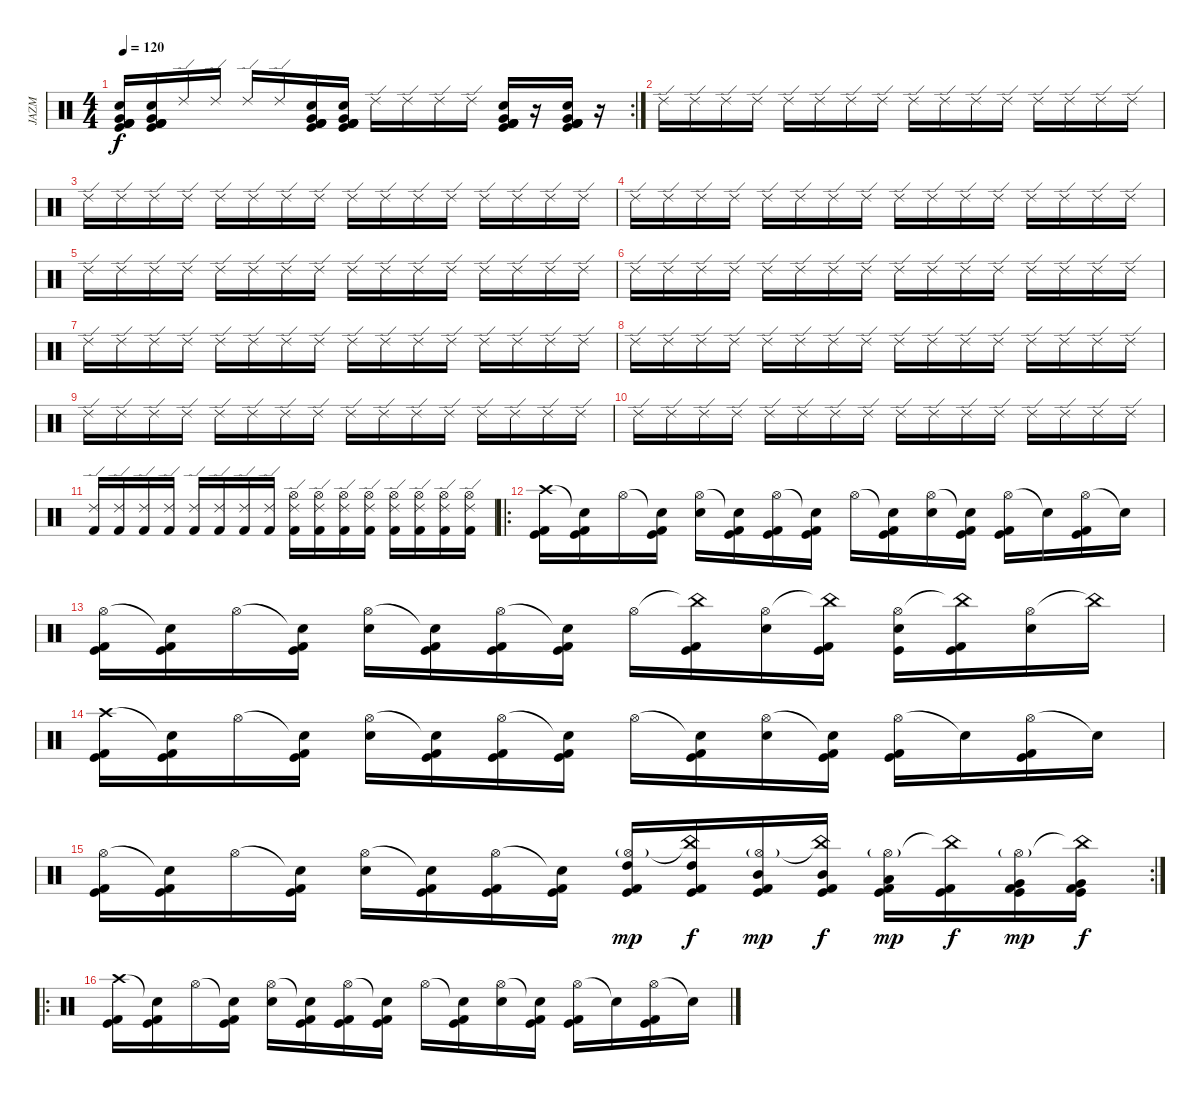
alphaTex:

\track ("JAZM" "JAZM") {instrument percussion}
\staff {score}
\articulation defaults
\rc 2
\ts (4 4)
\tempo 120
\clef neutral
\ks c
("Kick (hit) 2" "Electric Snare (hit)" "Kick (hit)" "Kick (hit) 2" "Very Low Tom (hit)" "Kick (hit) 2").16{dy f} ("Kick (hit) 2" "Electric Snare (hit)" "Kick (hit)" "Kick (hit) 2" "Very Low Tom (hit)" "Kick (hit) 2").16 "Ride (edge) 2".16 "Ride (edge) 2".16 "Ride (edge) 2".16 "Ride (edge) 2".16 ("Kick (hit) 2" "Electric Snare (hit)" "Kick (hit)" "Kick (hit) 2" "Very Low Tom (hit)" "Kick (hit) 2").16 ("Kick (hit) 2" "Electric Snare (hit)" "Kick (hit)" "Kick (hit) 2" "Very Low Tom (hit)" "Kick (hit) 2").16 "Ride (edge) 2".16 "Ride (edge) 2".16 "Ride (edge) 2".16 "Ride (edge) 2".16 ("Kick (hit) 2" "Electric Snare (hit)" "Kick (hit)" "Kick (hit) 2" "Very Low Tom (hit)" "Kick (hit) 2").16 r.16 ("Kick (hit) 2" "Electric Snare (hit)" "Kick (hit)" "Kick (hit) 2" "Very Low Tom (hit)" "Kick (hit) 2").16 r.16 |
"Ride (edge) 2".16 "Ride (edge) 2".16 "Ride (edge) 2".16 "Ride (edge) 2".16 "Ride (edge) 2".16 "Ride (edge) 2".16 "Ride (edge) 2".16 "Ride (edge) 2".16 "Ride (edge) 2".16 "Ride (edge) 2".16 "Ride (edge) 2".16 "Ride (edge) 2".16 "Ride (edge) 2".16 "Ride (edge) 2".16 "Ride (edge) 2".16 "Ride (edge) 2".16 |
"Ride (edge) 2".16 "Ride (edge) 2".16 "Ride (edge) 2".16 "Ride (edge) 2".16 "Ride (edge) 2".16 "Ride (edge) 2".16 "Ride (edge) 2".16 "Ride (edge) 2".16 "Ride (edge) 2".16 "Ride (edge) 2".16 "Ride (edge) 2".16 "Ride (edge) 2".16 "Ride (edge) 2".16 "Ride (edge) 2".16 "Ride (edge) 2".16 "Ride (edge) 2".16 |
"Ride (edge) 2".16 "Ride (edge) 2".16 "Ride (edge) 2".16 "Ride (edge) 2".16 "Ride (edge) 2".16 "Ride (edge) 2".16 "Ride (edge) 2".16 "Ride (edge) 2".16 "Ride (edge) 2".16 "Ride (edge) 2".16 "Ride (edge) 2".16 "Ride (edge) 2".16 "Ride (edge) 2".16 "Ride (edge) 2".16 "Ride (edge) 2".16 "Ride (edge) 2".16 |
"Ride (edge) 2".16 "Ride (edge) 2".16 "Ride (edge) 2".16 "Ride (edge) 2".16 "Ride (edge) 2".16 "Ride (edge) 2".16 "Ride (edge) 2".16 "Ride (edge) 2".16 "Ride (edge) 2".16 "Ride (edge) 2".16 "Ride (edge) 2".16 "Ride (edge) 2".16 "Ride (edge) 2".16 "Ride (edge) 2".16 "Ride (edge) 2".16 "Ride (edge) 2".16 |
"Ride (edge) 2".16 "Ride (edge) 2".16 "Ride (edge) 2".16 "Ride (edge) 2".16 "Ride (edge) 2".16 "Ride (edge) 2".16 "Ride (edge) 2".16 "Ride (edge) 2".16 "Ride (edge) 2".16 "Ride (edge) 2".16 "Ride (edge) 2".16 "Ride (edge) 2".16 "Ride (edge) 2".16 "Ride (edge) 2".16 "Ride (edge) 2".16 "Ride (edge) 2".16 |
"Ride (edge) 2".16 "Ride (edge) 2".16 "Ride (edge) 2".16 "Ride (edge) 2".16 "Ride (edge) 2".16 "Ride (edge) 2".16 "Ride (edge) 2".16 "Ride (edge) 2".16 "Ride (edge) 2".16 "Ride (edge) 2".16 "Ride (edge) 2".16 "Ride (edge) 2".16 "Ride (edge) 2".16 "Ride (edge) 2".16 "Ride (edge) 2".16 "Ride (edge) 2".16 |
"Ride (edge) 2".16 "Ride (edge) 2".16 "Ride (edge) 2".16 "Ride (edge) 2".16 "Ride (edge) 2".16 "Ride (edge) 2".16 "Ride (edge) 2".16 "Ride (edge) 2".16 "Ride (edge) 2".16 "Ride (edge) 2".16 "Ride (edge) 2".16 "Ride (edge) 2".16 "Ride (edge) 2".16 "Ride (edge) 2".16 "Ride (edge) 2".16 "Ride (edge) 2".16 |
"Ride (edge) 2".16 "Ride (edge) 2".16 "Ride (edge) 2".16 "Ride (edge) 2".16 "Ride (edge) 2".16 "Ride (edge) 2".16 "Ride (edge) 2".16 "Ride (edge) 2".16 "Ride (edge) 2".16 "Ride (edge) 2".16 "Ride (edge) 2".16 "Ride (edge) 2".16 "Ride (edge) 2".16 "Ride (edge) 2".16 "Ride (edge) 2".16 "Ride (edge) 2".16 |
"Ride (edge) 2".16 "Ride (edge) 2".16 "Ride (edge) 2".16 "Ride (edge) 2".16 "Ride (edge) 2".16 "Ride (edge) 2".16 "Ride (edge) 2".16 "Ride (edge) 2".16 "Ride (edge) 2".16 "Ride (edge) 2".16 "Ride (edge) 2".16 "Ride (edge) 2".16 "Ride (edge) 2".16 "Ride (edge) 2".16 "Ride (edge) 2".16 "Ride (edge) 2".16 |
("Kick (hit) 2" "Ride (edge) 2").16 ("Kick (hit) 2" "Ride (edge) 2").16 ("Kick (hit) 2" "Ride (edge) 2").16 ("Kick (hit) 2" "Ride (edge) 2").16 ("Kick (hit) 2" "Ride (edge) 2").16 ("Kick (hit) 2" "Ride (edge) 2").16 ("Kick (hit) 2" "Ride (edge) 2").16 ("Kick (hit) 2" "Ride (edge) 2").16 ("Hi-Hat (open)" "Kick (hit) 2" "Ride (edge) 2").16 ("Hi-Hat (open)" "Kick (hit) 2" "Ride (edge) 2").16 ("Hi-Hat (open)" "Kick (hit) 2" "Ride (edge) 2").16 ("Hi-Hat (open)" "Kick (hit) 2" "Ride (edge) 2").16 ("Hi-Hat (open)" "Kick (hit) 2" "Ride (edge) 2").16 ("Hi-Hat (open)" "Kick (hit) 2" "Ride (edge) 2").16 ("Hi-Hat (open)" "Kick (hit) 2" "Ride (edge) 2").16 ("Hi-Hat (open)" "Kick (hit) 2" "Ride (edge) 2").16 |
\ro
("Crash high (hit)" "Kick (hit) 2" "Kick (hit)").16 ("Snare (hit)"{t} "Kick (hit) 2" "Kick (hit)").16 "Hi-Hat (open)".16 ("Snare (hit)"{t} "Kick (hit) 2" "Kick (hit)").16 ("Hi-Hat (open)" "Electric Snare (hit)").16 ("Snare (hit)"{t} "Kick (hit) 2" "Kick (hit)").16 ("Hi-Hat (open)" "Kick (hit) 2" "Kick (hit)").16 ("Snare (hit)"{t} "Kick (hit) 2" "Kick (hit)").16 "Hi-Hat (open)".16 ("Snare (hit)"{t} "Kick (hit) 2" "Kick (hit)").16 ("Hi-Hat (open)" "Electric Snare (hit)").16 ("Snare (hit)"{t} "Kick (hit) 2" "Kick (hit)").16 ("Hi-Hat (open)" "Kick (hit) 2" "Kick (hit)").16 "Snare (hit)"{t}.16 ("Hi-Hat (open)" "Kick (hit) 2" "Kick (hit)").16 "Snare (hit)"{t}.16 |
("Hi-Hat (open)" "Kick (hit) 2" "Kick (hit)").16 ("Snare (hit)"{t} "Kick (hit) 2" "Kick (hit)").16 "Hi-Hat (open)".16 ("Snare (hit)"{t} "Kick (hit) 2" "Kick (hit)").16 ("Hi-Hat (open)" "Electric Snare (hit)").16 ("Snare (hit)"{t} "Kick (hit) 2" "Kick (hit)").16 ("Hi-Hat (open)" "Kick (hit) 2" "Kick (hit)").16 ("Snare (hit)"{t} "Kick (hit) 2" "Kick (hit)").16 "Hi-Hat (open)".16 ("China (hit)"{t} "Kick (hit) 2" "Kick (hit)").16 ("Hi-Hat (open)" "Electric Snare (hit)").16 ("China (hit)"{t} "Kick (hit) 2" "Kick (hit)").16 ("Hi-Hat (open)" "Electric Snare (hit)" "Kick (hit)").16 ("China (hit)"{t} "Kick (hit) 2" "Kick (hit)").16 ("Hi-Hat (open)" "Electric Snare (hit)").16 "China (hit)"{t}.16 |
("Crash high (hit)" "Kick (hit) 2" "Kick (hit)").16 ("Snare (hit)"{t} "Kick (hit) 2" "Kick (hit)").16 "Hi-Hat (open)".16 ("Snare (hit)"{t} "Kick (hit) 2" "Kick (hit)").16 ("Hi-Hat (open)" "Electric Snare (hit)").16 ("Snare (hit)"{t} "Kick (hit) 2" "Kick (hit)").16 ("Hi-Hat (open)" "Kick (hit) 2" "Kick (hit)").16 ("Snare (hit)"{t} "Kick (hit) 2" "Kick (hit)").16 "Hi-Hat (open)".16 ("Snare (hit)"{t} "Kick (hit) 2" "Kick (hit)").16 ("Hi-Hat (open)" "Electric Snare (hit)").16 ("Snare (hit)"{t} "Kick (hit) 2" "Kick (hit)").16 ("Hi-Hat (open)" "Kick (hit) 2" "Kick (hit)").16 "Snare (hit)"{t}.16 ("Hi-Hat (open)" "Kick (hit) 2" "Kick (hit)").16 "Snare (hit)"{t}.16 |
\rc 2
("Hi-Hat (open)" "Kick (hit) 2" "Kick (hit)").16 ("Snare (hit)"{t} "Kick (hit) 2" "Kick (hit)").16 "Hi-Hat (open)".16 ("Snare (hit)"{t} "Kick (hit) 2" "Kick (hit)").16 ("Hi-Hat (open)" "Electric Snare (hit)").16 ("Snare (hit)"{t} "Kick (hit) 2" "Kick (hit)").16 ("Hi-Hat (open)" "Kick (hit) 2" "Kick (hit)").16 ("Snare (hit)"{t} "Kick (hit) 2" "Kick (hit)").16 ("Hi-Hat (open)"{g} "High Tom (hit)" "Kick (hit) 2" "Kick (hit)").16{dy mp} ("China (hit)"{t} "High Tom (hit)" "Kick (hit) 2" "Kick (hit)").16{dy f} ("Hi-Hat (open)"{g} "Mid Tom (hit)" "Kick (hit) 2" "Kick (hit)").16{dy mp} ("China (hit)"{t} "Mid Tom (hit)" "Kick (hit) 2" "Kick (hit)").16{dy f} ("Hi-Hat (open)"{g} "Low Tom (hit)" "Kick (hit) 2" "Kick (hit)").16{dy mp} ("China (hit)"{t} "Kick (hit) 2" "Kick (hit)").16{dy f} ("Hi-Hat (open)"{g} "Very Low Tom (hit)" "Kick (hit) 2" "Kick (hit)").16{dy mp} ("China (hit)"{t} "Very Low Tom (hit)" "Kick (hit) 2" "Kick (hit)").16{dy f} |
\ro
("Crash high (hit)" "Kick (hit) 2" "Kick (hit)").16 ("Snare (hit)"{t} "Kick (hit) 2" "Kick (hit)").16 "Hi-Hat (open)".16 ("Snare (hit)"{t} "Kick (hit) 2" "Kick (hit)").16 ("Hi-Hat (open)" "Electric Snare (hit)").16 ("Snare (hit)"{t} "Kick (hit) 2" "Kick (hit)").16 ("Hi-Hat (open)" "Kick (hit) 2" "Kick (hit)").16 ("Snare (hit)"{t} "Kick (hit) 2" "Kick (hit)").16 "Hi-Hat (open)".16 ("Snare (hit)"{t} "Kick (hit) 2" "Kick (hit)").16 ("Hi-Hat (open)" "Electric Snare (hit)").16 ("Snare (hit)"{t} "Kick (hit) 2" "Kick (hit)").16 ("Hi-Hat (open)" "Kick (hit) 2" "Kick (hit)").16 "Snare (hit)"{t}.16 ("Hi-Hat (open)" "Kick (hit) 2" "Kick (hit)").16 "Snare (hit)"{t}.16
